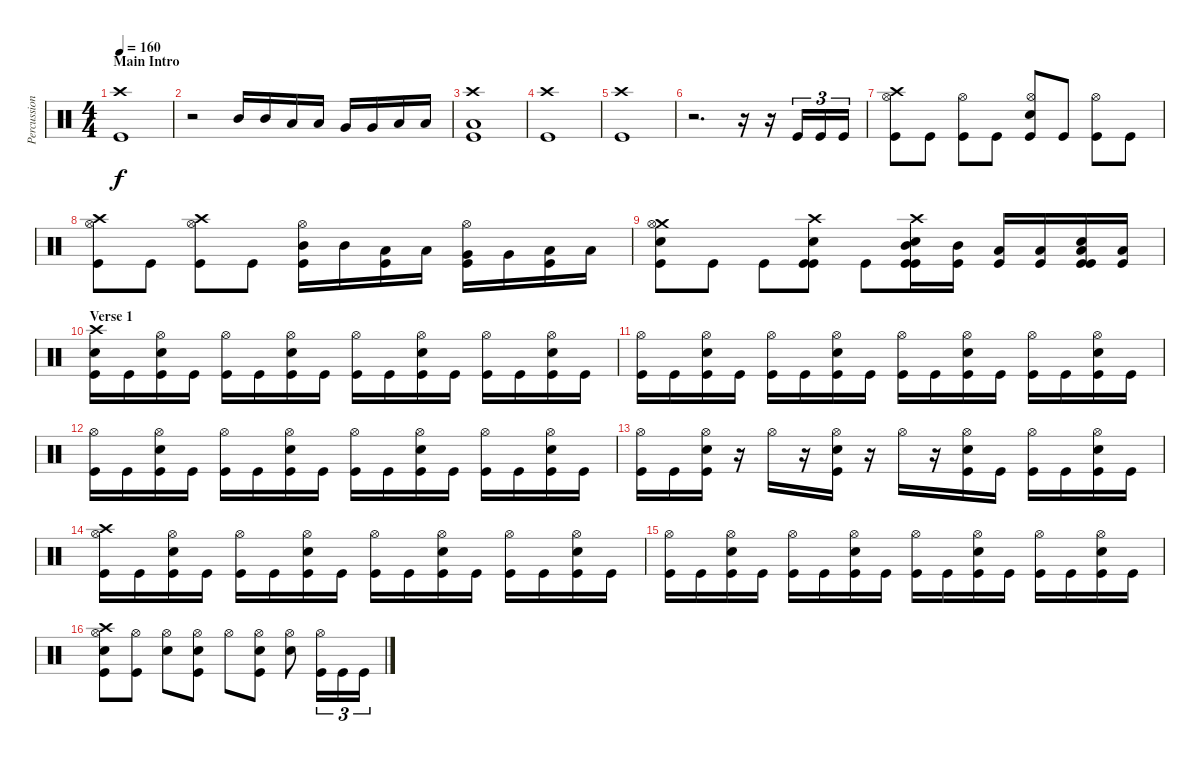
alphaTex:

\track ("Percussion" "Percussion") {instrument percussion}
\staff {score}
\articulation defaults
\ts (4 4)
\section ("" "Main Intro")
\tempo 160
\clef neutral
\ks c
("Crash high (hit)" "Kick (hit)").1{dy f} |
r.2 "Mid Tom (hit)".16 "Mid Tom (hit)".16 "Low Tom (hit)".16 "Low Tom (hit)".16 "Very Low Tom (hit)".16 "Very Low Tom (hit)".16 "Low Floor Tom (hit)".16 "Low Floor Tom (hit)".16 |
("Crash high (hit)" "Low Floor Tom (hit)" "Kick (hit)").1 |
("Crash high (hit)" "Kick (hit)").1 |
("Crash high (hit)" "Kick (hit)").1 |
r.2{d} r.16 r.16 "Kick (hit)".16{tu (3 2)} "Kick (hit)".16{tu (3 2)} "Kick (hit)".16{tu (3 2)} |
("Crash high (hit)" "Hi-Hat (open)" "Kick (hit)").8 "Kick (hit)".8 ("Hi-Hat (open)" "Kick (hit)").8 "Kick (hit)".8 ("Hi-Hat (open)" "Electric Snare (hit)" "Kick (hit)").8 "Kick (hit)".8 ("Hi-Hat (open)" "Kick (hit)").8 "Kick (hit)".8 |
("Hi-Hat (open)" "Crash high (hit)" "Kick (hit)").8 "Kick (hit)".8 ("Hi-Hat (open)" "Crash high (hit)" "Kick (hit)").8 "Kick (hit)".8 ("Mid Tom (hit)" "Hi-Hat (open)" "Kick (hit)").16 "Mid Tom (hit)".16 ("Low Tom (hit)" "Kick (hit)").16 "Low Tom (hit)".16 ("Very Low Tom (hit)" "Hi-Hat (open)" "Kick (hit)").16 "Very Low Tom (hit)".16 ("Low Floor Tom (hit)" "Kick (hit)").16 "Low Floor Tom (hit)".16 |
("Crash medium (hit)" "Hi-Hat (open)" "Electric Snare (hit)" "Kick (hit)").8 "Kick (hit)".8 "Kick (hit)".8 ("Crash high (hit)" "Electric Snare (hit)" "Kick (hit)" "Kick (hit)").8 "Kick (hit)".8 ("Crash high (hit)" "Mid Tom (hit)" "Electric Snare (hit)" "Kick (hit)" "Kick (hit)").16 ("Mid Tom (hit)" "Kick (hit)").16 ("Low Tom (hit)" "Kick (hit)").16 ("Low Tom (hit)" "Kick (hit)").16 ("Low Floor Tom (hit)" "Electric Snare (hit)" "Kick (hit)" "Kick (hit)").16 ("Low Floor Tom (hit)" "Kick (hit)").16 |
\section ("" "Verse 1")
("Crash high (hit)" "Electric Snare (hit)" "Kick (hit)").16 "Kick (hit)".16 ("Electric Snare (hit)" "Hi-Hat (open)" "Kick (hit)").16 "Kick (hit)".16 ("Hi-Hat (open)" "Kick (hit)").16 "Kick (hit)".16 ("Electric Snare (hit)" "Hi-Hat (open)" "Kick (hit)").16 "Kick (hit)".16 ("Hi-Hat (open)" "Kick (hit)").16 "Kick (hit)".16 ("Electric Snare (hit)" "Hi-Hat (open)" "Kick (hit)").16 "Kick (hit)".16 ("Hi-Hat (open)" "Kick (hit)").16 "Kick (hit)".16 ("Electric Snare (hit)" "Hi-Hat (open)" "Kick (hit)").16 "Kick (hit)".16 |
("Hi-Hat (open)" "Kick (hit)").16 "Kick (hit)".16 ("Electric Snare (hit)" "Hi-Hat (open)" "Kick (hit)").16 "Kick (hit)".16 ("Hi-Hat (open)" "Kick (hit)").16 "Kick (hit)".16 ("Electric Snare (hit)" "Hi-Hat (open)" "Kick (hit)").16 "Kick (hit)".16 ("Hi-Hat (open)" "Kick (hit)").16 "Kick (hit)".16 ("Electric Snare (hit)" "Hi-Hat (open)" "Kick (hit)").16 "Kick (hit)".16 ("Hi-Hat (open)" "Kick (hit)").16 "Kick (hit)".16 ("Electric Snare (hit)" "Hi-Hat (open)" "Kick (hit)").16 "Kick (hit)".16 |
("Hi-Hat (open)" "Kick (hit)").16 "Kick (hit)".16 ("Electric Snare (hit)" "Hi-Hat (open)" "Kick (hit)").16 "Kick (hit)".16 ("Hi-Hat (open)" "Kick (hit)").16 "Kick (hit)".16 ("Electric Snare (hit)" "Hi-Hat (open)" "Kick (hit)").16 "Kick (hit)".16 ("Hi-Hat (open)" "Kick (hit)").16 "Kick (hit)".16 ("Electric Snare (hit)" "Hi-Hat (open)" "Kick (hit)").16 "Kick (hit)".16 ("Hi-Hat (open)" "Kick (hit)").16 "Kick (hit)".16 ("Electric Snare (hit)" "Hi-Hat (open)" "Kick (hit)").16 "Kick (hit)".16 |
("Hi-Hat (open)" "Kick (hit)").16 "Kick (hit)".16 ("Electric Snare (hit)" "Hi-Hat (open)" "Kick (hit)").16 r.16 "Hi-Hat (open)".16 r.16 ("Electric Snare (hit)" "Hi-Hat (open)" "Kick (hit)").16 r.16 "Hi-Hat (open)".16 r.16 ("Electric Snare (hit)" "Hi-Hat (open)" "Kick (hit)").16 "Kick (hit)".16 ("Hi-Hat (open)" "Kick (hit)").16 "Kick (hit)".16 ("Electric Snare (hit)" "Hi-Hat (open)" "Kick (hit)").16 "Kick (hit)".16 |
("Crash high (hit)" "Hi-Hat (open)" "Kick (hit)").16 "Kick (hit)".16 ("Electric Snare (hit)" "Hi-Hat (open)" "Kick (hit)").16 "Kick (hit)".16 ("Hi-Hat (open)" "Kick (hit)").16 "Kick (hit)".16 ("Electric Snare (hit)" "Hi-Hat (open)" "Kick (hit)").16 "Kick (hit)".16 ("Hi-Hat (open)" "Kick (hit)").16 "Kick (hit)".16 ("Electric Snare (hit)" "Hi-Hat (open)" "Kick (hit)").16 "Kick (hit)".16 ("Hi-Hat (open)" "Kick (hit)").16 "Kick (hit)".16 ("Electric Snare (hit)" "Hi-Hat (open)" "Kick (hit)").16 "Kick (hit)".16 |
("Hi-Hat (open)" "Kick (hit)").16 "Kick (hit)".16 ("Electric Snare (hit)" "Hi-Hat (open)" "Kick (hit)").16 "Kick (hit)".16 ("Hi-Hat (open)" "Kick (hit)").16 "Kick (hit)".16 ("Electric Snare (hit)" "Hi-Hat (open)" "Kick (hit)").16 "Kick (hit)".16 ("Hi-Hat (open)" "Kick (hit)").16 "Kick (hit)".16 ("Electric Snare (hit)" "Hi-Hat (open)" "Kick (hit)").16 "Kick (hit)".16 ("Hi-Hat (open)" "Kick (hit)").16 "Kick (hit)".16 ("Electric Snare (hit)" "Hi-Hat (open)" "Kick (hit)").16 "Kick (hit)".16 |
("Crash high (hit)" "Hi-Hat (open)" "Electric Snare (hit)" "Kick (hit)").8 ("Hi-Hat (open)" "Kick (hit)").8 ("Hi-Hat (open)" "Electric Snare (hit)").8 ("Hi-Hat (open)" "Electric Snare (hit)" "Kick (hit)").8 "Hi-Hat (open)".8 ("Hi-Hat (open)" "Electric Snare (hit)" "Kick (hit)").8 ("Hi-Hat (open)" "Electric Snare (hit)").8 ("Hi-Hat (open)" "Kick (hit)").16{tu (3 2)} "Kick (hit)".16{tu (3 2)} "Kick (hit)".16{tu (3 2)}
